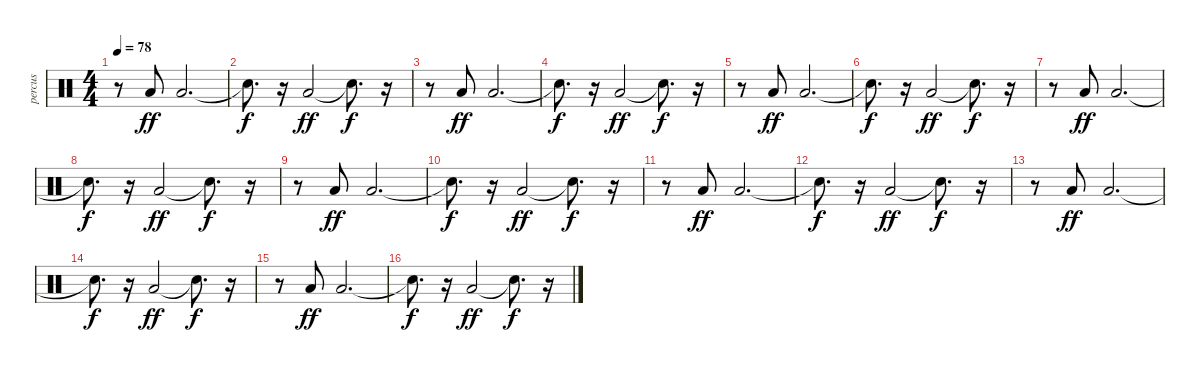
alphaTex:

\track ("percus" "percus") {instrument percussion}
\staff {score}
\articulation defaults
\ts (4 4)
\tempo 78
\clef neutral
\ks c
r.8{dy f} "Low Floor Tom (hit)".8{dy ff} "Low Floor Tom (hit)".2{d} |
"Snare (hit)"{t}.8{d dy f} r.16 "Low Floor Tom (hit)".2{dy ff} "Snare (hit)"{t}.8{d dy f} r.16 |
r.8 "Low Floor Tom (hit)".8{dy ff} "Low Floor Tom (hit)".2{d} |
"Snare (hit)"{t}.8{d dy f} r.16 "Low Floor Tom (hit)".2{dy ff} "Snare (hit)"{t}.8{d dy f} r.16 |
r.8 "Low Floor Tom (hit)".8{dy ff} "Low Floor Tom (hit)".2{d} |
"Snare (hit)"{t}.8{d dy f} r.16 "Low Floor Tom (hit)".2{dy ff} "Snare (hit)"{t}.8{d dy f} r.16 |
r.8 "Low Floor Tom (hit)".8{dy ff} "Low Floor Tom (hit)".2{d} |
"Snare (hit)"{t}.8{d dy f} r.16 "Low Floor Tom (hit)".2{dy ff} "Snare (hit)"{t}.8{d dy f} r.16 |
r.8 "Low Floor Tom (hit)".8{dy ff} "Low Floor Tom (hit)".2{d} |
"Snare (hit)"{t}.8{d dy f} r.16 "Low Floor Tom (hit)".2{dy ff} "Snare (hit)"{t}.8{d dy f} r.16 |
r.8 "Low Floor Tom (hit)".8{dy ff} "Low Floor Tom (hit)".2{d} |
"Snare (hit)"{t}.8{d dy f} r.16 "Low Floor Tom (hit)".2{dy ff} "Snare (hit)"{t}.8{d dy f} r.16 |
r.8 "Low Floor Tom (hit)".8{dy ff} "Low Floor Tom (hit)".2{d} |
"Snare (hit)"{t}.8{d dy f} r.16 "Low Floor Tom (hit)".2{dy ff} "Snare (hit)"{t}.8{d dy f} r.16 |
r.8 "Low Floor Tom (hit)".8{dy ff} "Low Floor Tom (hit)".2{d} |
"Snare (hit)"{t}.8{d dy f} r.16 "Low Floor Tom (hit)".2{dy ff} "Snare (hit)"{t}.8{d dy f} r.16
